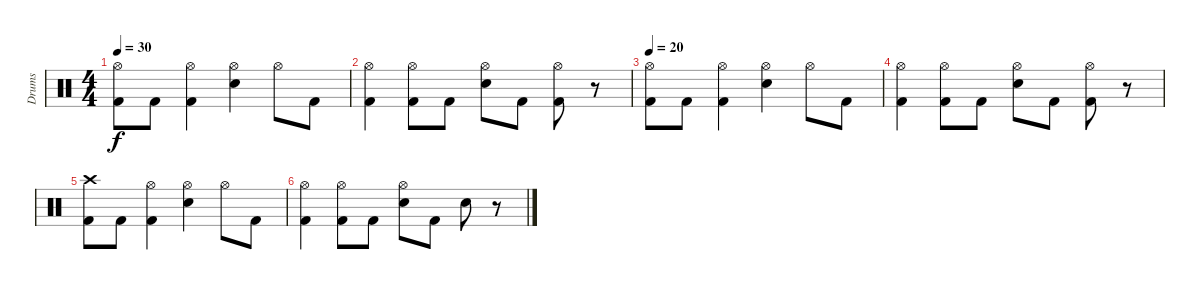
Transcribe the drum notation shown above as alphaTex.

\track ("Drums" "Drums") {instrument percussion}
\staff {score}
\articulation defaults
\ts (4 4)
\tempo 30
\clef neutral
\ks c
("Hi-Hat (open)" "Kick (hit) 2").8{dy f} "Kick (hit) 2".8 ("Hi-Hat (open)" "Kick (hit) 2").4 ("Hi-Hat (open)" "Snare (hit) 2").4 "Hi-Hat (open)".8 "Kick (hit) 2".8 |
("Hi-Hat (open)" "Kick (hit) 2").4 ("Hi-Hat (open)" "Kick (hit) 2").8 "Kick (hit) 2".8 ("Hi-Hat (open)" "Snare (hit) 2").8 "Kick (hit) 2".8 ("Hi-Hat (open)" "Kick (hit) 2").8 r.8 |
\tempo 20
("Hi-Hat (open)" "Kick (hit) 2").8 "Kick (hit) 2".8 ("Hi-Hat (open)" "Kick (hit) 2").4 ("Hi-Hat (open)" "Snare (hit) 2").4 "Hi-Hat (open)".8 "Kick (hit) 2".8 |
("Hi-Hat (open)" "Kick (hit) 2").4 ("Hi-Hat (open)" "Kick (hit) 2").8 "Kick (hit) 2".8 ("Hi-Hat (open)" "Snare (hit) 2").8 "Kick (hit) 2".8 ("Hi-Hat (open)" "Kick (hit) 2").8 r.8 |
("Crash high (hit)" "Kick (hit) 2").8 "Kick (hit) 2".8 ("Hi-Hat (open)" "Kick (hit) 2").4 ("Hi-Hat (open)" "Snare (hit) 2").4 "Hi-Hat (open)".8 "Kick (hit) 2".8 |
("Hi-Hat (open)" "Kick (hit) 2").4 ("Hi-Hat (open)" "Kick (hit) 2").8 "Kick (hit) 2".8 ("Hi-Hat (open)" "Snare (hit) 2").8 "Kick (hit) 2".8 "Snare (hit) 2".8 r.8
